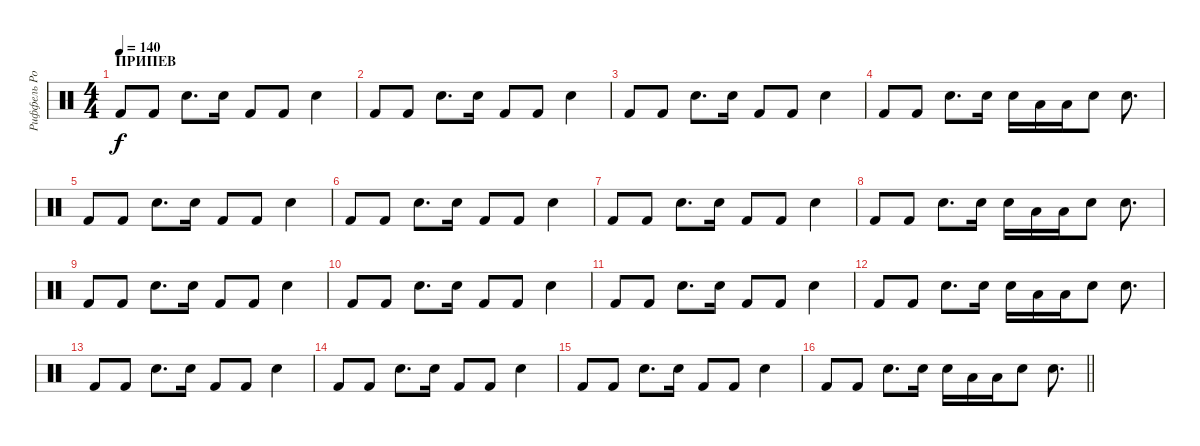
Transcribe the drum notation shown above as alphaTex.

\track ("Риффель Роман(главные)" "Риффель Ро") {instrument percussion}
\staff {score}
\articulation defaults
\ts (4 4)
\section ("" "ПРИПЕВ")
\tempo 140
\clef neutral
\ks c "Kick (hit) 2".8{dy f} "Kick (hit) 2".8 "Electric Snare (hit)".8{d} "Electric Snare (hit)".16 "Kick (hit) 2".8 "Kick (hit) 2".8 "Electric Snare (hit)".4
|
"Kick (hit) 2".8 "Kick (hit) 2".8 "Electric Snare (hit)".8{d} "Electric Snare (hit)".16 "Kick (hit) 2".8 "Kick (hit) 2".8 "Electric Snare (hit)".4 |
"Kick (hit) 2".8 "Kick (hit) 2".8 "Electric Snare (hit)".8{d} "Electric Snare (hit)".16 "Kick (hit) 2".8 "Kick (hit) 2".8 "Electric Snare (hit)".4 |
"Kick (hit) 2".8 "Kick (hit) 2".8 "Electric Snare (hit)".8{d} "Electric Snare (hit)".16 "Electric Snare (hit)".16 "Low Tom (hit)".16 "Low Tom (hit)".16 "Electric Snare (hit)".8 "Electric Snare (hit)".8{d} |
"Kick (hit) 2".8 "Kick (hit) 2".8 "Electric Snare (hit)".8{d} "Electric Snare (hit)".16 "Kick (hit) 2".8 "Kick (hit) 2".8 "Electric Snare (hit)".4 |
"Kick (hit) 2".8 "Kick (hit) 2".8 "Electric Snare (hit)".8{d} "Electric Snare (hit)".16 "Kick (hit) 2".8 "Kick (hit) 2".8 "Electric Snare (hit)".4 |
"Kick (hit) 2".8 "Kick (hit) 2".8 "Electric Snare (hit)".8{d} "Electric Snare (hit)".16 "Kick (hit) 2".8 "Kick (hit) 2".8 "Electric Snare (hit)".4 |
"Kick (hit) 2".8 "Kick (hit) 2".8 "Electric Snare (hit)".8{d} "Electric Snare (hit)".16 "Electric Snare (hit)".16 "Low Tom (hit)".16 "Low Tom (hit)".16 "Electric Snare (hit)".8 "Electric Snare (hit)".8{d} |
"Kick (hit) 2".8 "Kick (hit) 2".8 "Electric Snare (hit)".8{d} "Electric Snare (hit)".16 "Kick (hit) 2".8 "Kick (hit) 2".8 "Electric Snare (hit)".4 |
"Kick (hit) 2".8 "Kick (hit) 2".8 "Electric Snare (hit)".8{d} "Electric Snare (hit)".16 "Kick (hit) 2".8 "Kick (hit) 2".8 "Electric Snare (hit)".4 |
"Kick (hit) 2".8 "Kick (hit) 2".8 "Electric Snare (hit)".8{d} "Electric Snare (hit)".16 "Kick (hit) 2".8 "Kick (hit) 2".8 "Electric Snare (hit)".4 |
"Kick (hit) 2".8 "Kick (hit) 2".8 "Electric Snare (hit)".8{d} "Electric Snare (hit)".16 "Electric Snare (hit)".16 "Low Tom (hit)".16 "Low Tom (hit)".16 "Electric Snare (hit)".8 "Electric Snare (hit)".8{d} |
"Kick (hit) 2".8 "Kick (hit) 2".8 "Electric Snare (hit)".8{d} "Electric Snare (hit)".16 "Kick (hit) 2".8 "Kick (hit) 2".8 "Electric Snare (hit)".4 |
"Kick (hit) 2".8 "Kick (hit) 2".8 "Electric Snare (hit)".8{d} "Electric Snare (hit)".16 "Kick (hit) 2".8 "Kick (hit) 2".8 "Electric Snare (hit)".4 |
"Kick (hit) 2".8 "Kick (hit) 2".8 "Electric Snare (hit)".8{d} "Electric Snare (hit)".16 "Kick (hit) 2".8 "Kick (hit) 2".8 "Electric Snare (hit)".4 |
\barLineRight lightlight "Kick (hit) 2".8 "Kick (hit) 2".8 "Electric Snare (hit)".8{d} "Electric Snare (hit)".16 "Electric Snare (hit)".16 "Low Tom (hit)".16 "Low Tom (hit)".16 "Electric Snare (hit)".8 "Electric Snare (hit)".8{d}
